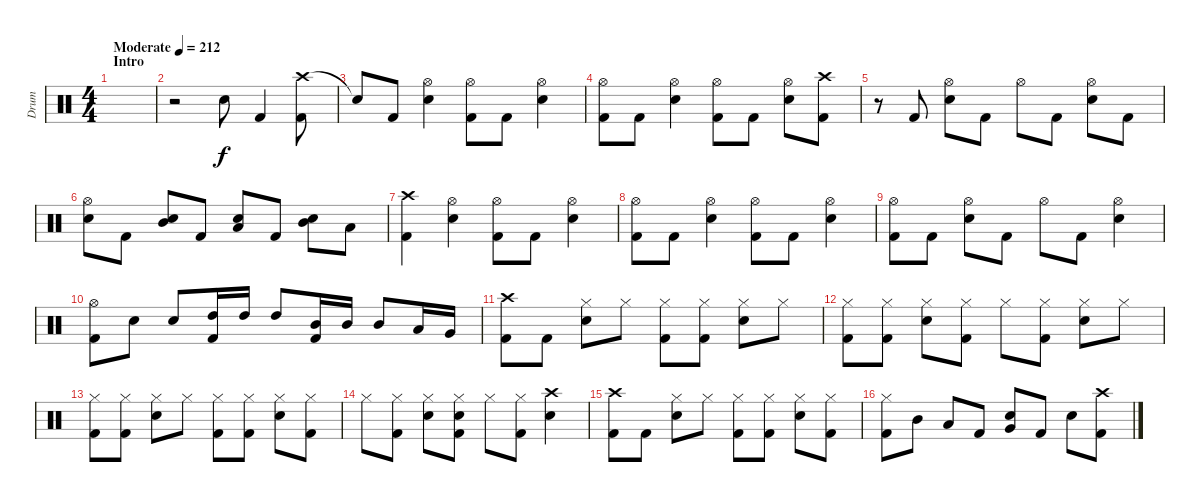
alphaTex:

\track ("Drum" "Drum") {instrument percussion}
\staff {score}
\articulation defaults
\ts (4 4)
\section ("" "Intro")
\tempo (212 "Moderate")
\clef neutral
\ks c
|
r.2 "Electric Snare (hit)".8 "Kick (hit) 2".4 ("Crash high (hit)" "Kick (hit) 2").8 |
"Snare (hit)"{t}.8 "Kick (hit) 2".8 ("Hi-Hat (open)" "Electric Snare (hit)").4 ("Hi-Hat (open)" "Kick (hit) 2").8 "Kick (hit) 2".8 ("Hi-Hat (open)" "Electric Snare (hit)").4 |
("Hi-Hat (open)" "Kick (hit) 2").8 "Kick (hit) 2".8 ("Hi-Hat (open)" "Electric Snare (hit)").4 ("Hi-Hat (open)" "Kick (hit) 2").8 "Kick (hit) 2".8 ("Hi-Hat (open)" "Electric Snare (hit)").8 ("Crash high (hit)" "Kick (hit) 2").8 |
r.8 "Kick (hit) 2".8 ("Hi-Hat (open)" "Electric Snare (hit)").8 "Kick (hit) 2".8 "Hi-Hat (open)".8 "Kick (hit) 2".8 ("Hi-Hat (open)" "Electric Snare (hit)").8 "Kick (hit) 2".8 |
("Hi-Hat (open)" "Electric Snare (hit)").8 "Kick (hit) 2".8 ("Mid Tom (hit)" "Electric Snare (hit)").8 "Kick (hit) 2".8 ("Low Tom (hit)" "Electric Snare (hit)").8 "Kick (hit) 2".8 ("Mid Tom (hit)" "Electric Snare (hit)").8 "Low Tom (hit)".8 |
("Crash high (hit)" "Kick (hit) 2").4 ("Hi-Hat (open)" "Electric Snare (hit)").4 ("Hi-Hat (open)" "Kick (hit) 2").8 "Kick (hit) 2".8 ("Hi-Hat (open)" "Electric Snare (hit)").4 |
("Hi-Hat (open)" "Kick (hit) 2").8 "Kick (hit) 2".8 ("Hi-Hat (open)" "Electric Snare (hit)").4 ("Hi-Hat (open)" "Kick (hit) 2").8 "Kick (hit) 2".8 ("Hi-Hat (open)" "Electric Snare (hit)").4 |
("Hi-Hat (open)" "Kick (hit) 2").8 "Kick (hit) 2".8 ("Hi-Hat (open)" "Electric Snare (hit)").8 "Kick (hit) 2".8 "Hi-Hat (open)".8 "Kick (hit) 2".8 ("Hi-Hat (open)" "Electric Snare (hit)").4 |
("Hi-Hat (open)" "Kick (hit) 2").8 "Electric Snare (hit)".8 "Electric Snare (hit)".8 ("High Tom (hit)" "Kick (hit) 2").16 "High Tom (hit)".16 "High Tom (hit)".8 ("Mid Tom (hit)" "Kick (hit) 2").16 "Mid Tom (hit)".16 "Mid Tom (hit)".8 "Low Tom (hit)".16 "Very Low Tom (hit)".16 |
("Crash high (hit)" "Kick (hit) 2").8 "Kick (hit) 2".8 ("Hi-Hat (closed)" "Electric Snare (hit)").8 "Hi-Hat (closed)".8 ("Hi-Hat (closed)" "Kick (hit) 2").8 ("Hi-Hat (closed)" "Kick (hit) 2").8 ("Hi-Hat (closed)" "Electric Snare (hit)").8 "Hi-Hat (closed)".8 |
("Hi-Hat (closed)" "Kick (hit) 2").8 ("Hi-Hat (closed)" "Kick (hit) 2").8 ("Hi-Hat (closed)" "Electric Snare (hit)").8 ("Hi-Hat (closed)" "Kick (hit) 2").8 "Hi-Hat (closed)".8 ("Hi-Hat (closed)" "Kick (hit) 2").8 ("Hi-Hat (closed)" "Electric Snare (hit)").8 "Hi-Hat (closed)".8 |
("Hi-Hat (closed)" "Kick (hit) 2").8 ("Hi-Hat (closed)" "Kick (hit) 2").8 ("Hi-Hat (closed)" "Electric Snare (hit)").8 "Hi-Hat (closed)".8 ("Hi-Hat (closed)" "Kick (hit) 2").8 ("Hi-Hat (closed)" "Kick (hit) 2").8 ("Hi-Hat (closed)" "Electric Snare (hit)").8 ("Hi-Hat (closed)" "Kick (hit) 2").8 |
"Hi-Hat (closed)".8 ("Hi-Hat (closed)" "Kick (hit) 2").8 ("Hi-Hat (closed)" "Electric Snare (hit)").8 ("Hi-Hat (closed)" "Electric Snare (hit)" "Kick (hit) 2").8 "Hi-Hat (closed)".8 ("Hi-Hat (closed)" "Kick (hit) 2").8 ("Crash high (hit)" "Electric Snare (hit)").4 |
("Crash high (hit)" "Kick (hit) 2").8 "Kick (hit) 2".8 ("Hi-Hat (closed)" "Electric Snare (hit)").8 "Hi-Hat (closed)".8 ("Hi-Hat (closed)" "Kick (hit) 2").8 ("Hi-Hat (closed)" "Kick (hit) 2").8 ("Hi-Hat (closed)" "Electric Snare (hit)").8 ("Hi-Hat (closed)" "Kick (hit) 2").8 |
("Hi-Hat (closed)" "Kick (hit) 2").8 "Mid Tom (hit)".8 "Low Tom (hit)".8 "Kick (hit) 2".8 ("Very Low Tom (hit)" "Electric Snare (hit)").8 "Kick (hit) 2".8 "Electric Snare (hit)".8 ("Crash high (hit)" "Kick (hit) 2").8
